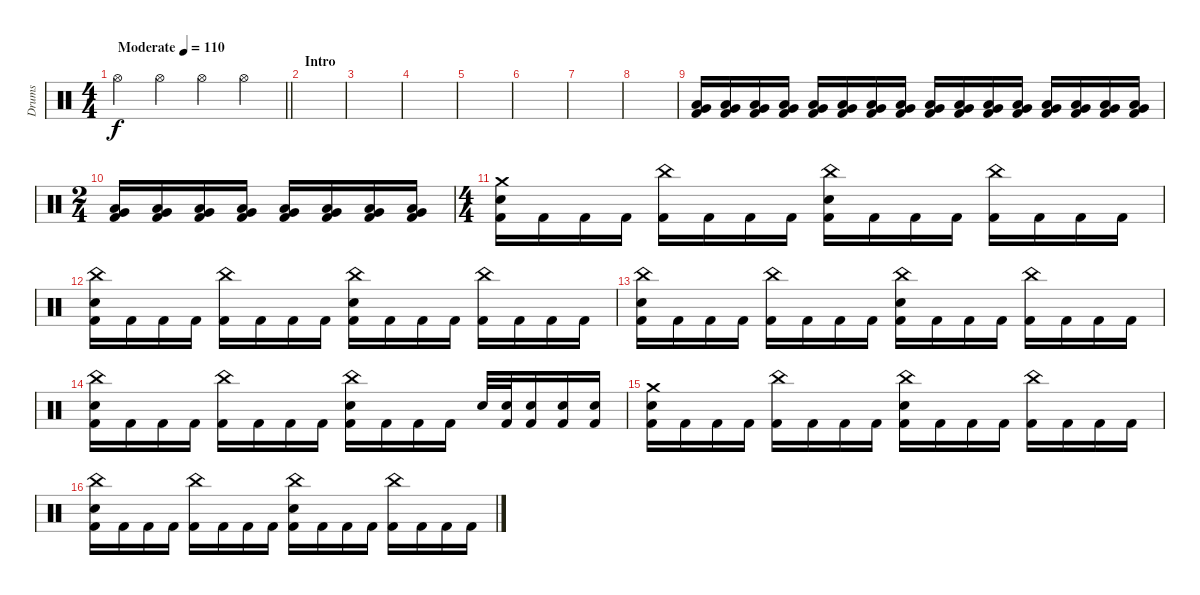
\track ("Drums" "Drums") {instrument percussion}
\staff {score}
\articulation defaults
\ts (4 4)
\tempo (110 "Moderate")
\clef neutral
\barLineRight lightlight
\ks c "Hi-Hat (open)".4{dy f} "Hi-Hat (open)".4 "Hi-Hat (open)".4 "Hi-Hat (open)".4
|
\section ("" "Intro")
|
|
|
|
|
|
|
("Kick (hit) 2" "Very Low Tom (hit)" "Low Tom (hit)").16{volume 7} ("Kick (hit) 2" "Very Low Tom (hit)" "Low Tom (hit)").16{volume 16} ("Kick (hit) 2" "Very Low Tom (hit)" "Low Tom (hit)").16 ("Kick (hit) 2" "Very Low Tom (hit)" "Low Tom (hit)").16 ("Kick (hit) 2" "Very Low Tom (hit)" "Low Tom (hit)").16 ("Kick (hit) 2" "Very Low Tom (hit)" "Low Tom (hit)").16 ("Kick (hit) 2" "Very Low Tom (hit)" "Low Tom (hit)").16 ("Kick (hit) 2" "Very Low Tom (hit)" "Low Tom (hit)").16 ("Kick (hit) 2" "Very Low Tom (hit)" "Low Tom (hit)").16 ("Kick (hit) 2" "Very Low Tom (hit)" "Low Tom (hit)").16 ("Kick (hit) 2" "Very Low Tom (hit)" "Low Tom (hit)").16 ("Kick (hit) 2" "Very Low Tom (hit)" "Low Tom (hit)").16 ("Kick (hit) 2" "Very Low Tom (hit)" "Low Tom (hit)").16 ("Kick (hit) 2" "Very Low Tom (hit)" "Low Tom (hit)").16 ("Kick (hit) 2" "Very Low Tom (hit)" "Low Tom (hit)").16 ("Kick (hit) 2" "Very Low Tom (hit)" "Low Tom (hit)").16 |
\ts (2 4)
("Kick (hit) 2" "Very Low Tom (hit)" "Low Tom (hit)").16 ("Kick (hit) 2" "Very Low Tom (hit)" "Low Tom (hit)").16 ("Kick (hit) 2" "Very Low Tom (hit)" "Low Tom (hit)").16 ("Kick (hit) 2" "Very Low Tom (hit)" "Low Tom (hit)").16 ("Kick (hit) 2" "Very Low Tom (hit)" "Low Tom (hit)").16 ("Kick (hit) 2" "Very Low Tom (hit)" "Low Tom (hit)").16 ("Kick (hit) 2" "Very Low Tom (hit)" "Low Tom (hit)").16 ("Kick (hit) 2" "Very Low Tom (hit)" "Low Tom (hit)").16 |
\ts (4 4)
("Kick (hit) 2" "Snare (hit) 2" "Crash medium (hit)").16 "Kick (hit) 2".16 "Kick (hit) 2".16 "Kick (hit) 2".16 ("Kick (hit) 2" "China (hit)").16 "Kick (hit) 2".16 "Kick (hit) 2".16 "Kick (hit) 2".16 ("Kick (hit) 2" "Snare (hit) 2" "China (hit)").16 "Kick (hit) 2".16 "Kick (hit) 2".16 "Kick (hit) 2".16 ("Kick (hit) 2" "China (hit)").16 "Kick (hit) 2".16 "Kick (hit) 2".16 "Kick (hit) 2".16 |
("Kick (hit) 2" "Snare (hit) 2" "China (hit)").16 "Kick (hit) 2".16 "Kick (hit) 2".16 "Kick (hit) 2".16 ("Kick (hit) 2" "China (hit)").16 "Kick (hit) 2".16 "Kick (hit) 2".16 "Kick (hit) 2".16 ("Kick (hit) 2" "Snare (hit) 2" "China (hit)").16 "Kick (hit) 2".16 "Kick (hit) 2".16 "Kick (hit) 2".16 ("Kick (hit) 2" "China (hit)").16 "Kick (hit) 2".16 "Kick (hit) 2".16 "Kick (hit) 2".16 |
("Kick (hit) 2" "Snare (hit) 2" "China (hit)").16 "Kick (hit) 2".16 "Kick (hit) 2".16 "Kick (hit) 2".16 ("Kick (hit) 2" "China (hit)").16 "Kick (hit) 2".16 "Kick (hit) 2".16 "Kick (hit) 2".16 ("Kick (hit) 2" "Snare (hit) 2" "China (hit)").16 "Kick (hit) 2".16 "Kick (hit) 2".16 "Kick (hit) 2".16 ("Kick (hit) 2" "China (hit)").16 "Kick (hit) 2".16 "Kick (hit) 2".16 "Kick (hit) 2".16 |
("Kick (hit) 2" "Snare (hit) 2" "China (hit)").16 "Kick (hit) 2".16 "Kick (hit) 2".16 "Kick (hit) 2".16 ("Kick (hit) 2" "China (hit)").16 "Kick (hit) 2".16 "Kick (hit) 2".16 "Kick (hit) 2".16 ("Kick (hit) 2" "Snare (hit) 2" "China (hit)").16 "Kick (hit) 2".16 "Kick (hit) 2".16 "Kick (hit) 2".16 "Snare (hit) 2".32 ("Kick (hit) 2" "Snare (hit) 2").32 ("Kick (hit) 2" "Snare (hit) 2").16 ("Kick (hit) 2" "Snare (hit) 2").16 ("Kick (hit) 2" "Snare (hit) 2").16 |
("Kick (hit) 2" "Snare (hit) 2" "Crash medium (hit)").16 "Kick (hit) 2".16 "Kick (hit) 2".16 "Kick (hit) 2".16 ("Kick (hit) 2" "China (hit)").16 "Kick (hit) 2".16 "Kick (hit) 2".16 "Kick (hit) 2".16 ("Kick (hit) 2" "Snare (hit) 2" "China (hit)").16 "Kick (hit) 2".16 "Kick (hit) 2".16 "Kick (hit) 2".16 ("Kick (hit) 2" "China (hit)").16 "Kick (hit) 2".16 "Kick (hit) 2".16 "Kick (hit) 2".16 |
("Kick (hit) 2" "Snare (hit) 2" "China (hit)").16 "Kick (hit) 2".16 "Kick (hit) 2".16 "Kick (hit) 2".16 ("Kick (hit) 2" "China (hit)").16 "Kick (hit) 2".16 "Kick (hit) 2".16 "Kick (hit) 2".16 ("Kick (hit) 2" "Snare (hit) 2" "China (hit)").16 "Kick (hit) 2".16 "Kick (hit) 2".16 "Kick (hit) 2".16 ("Kick (hit) 2" "China (hit)").16 "Kick (hit) 2".16 "Kick (hit) 2".16 "Kick (hit) 2".16
